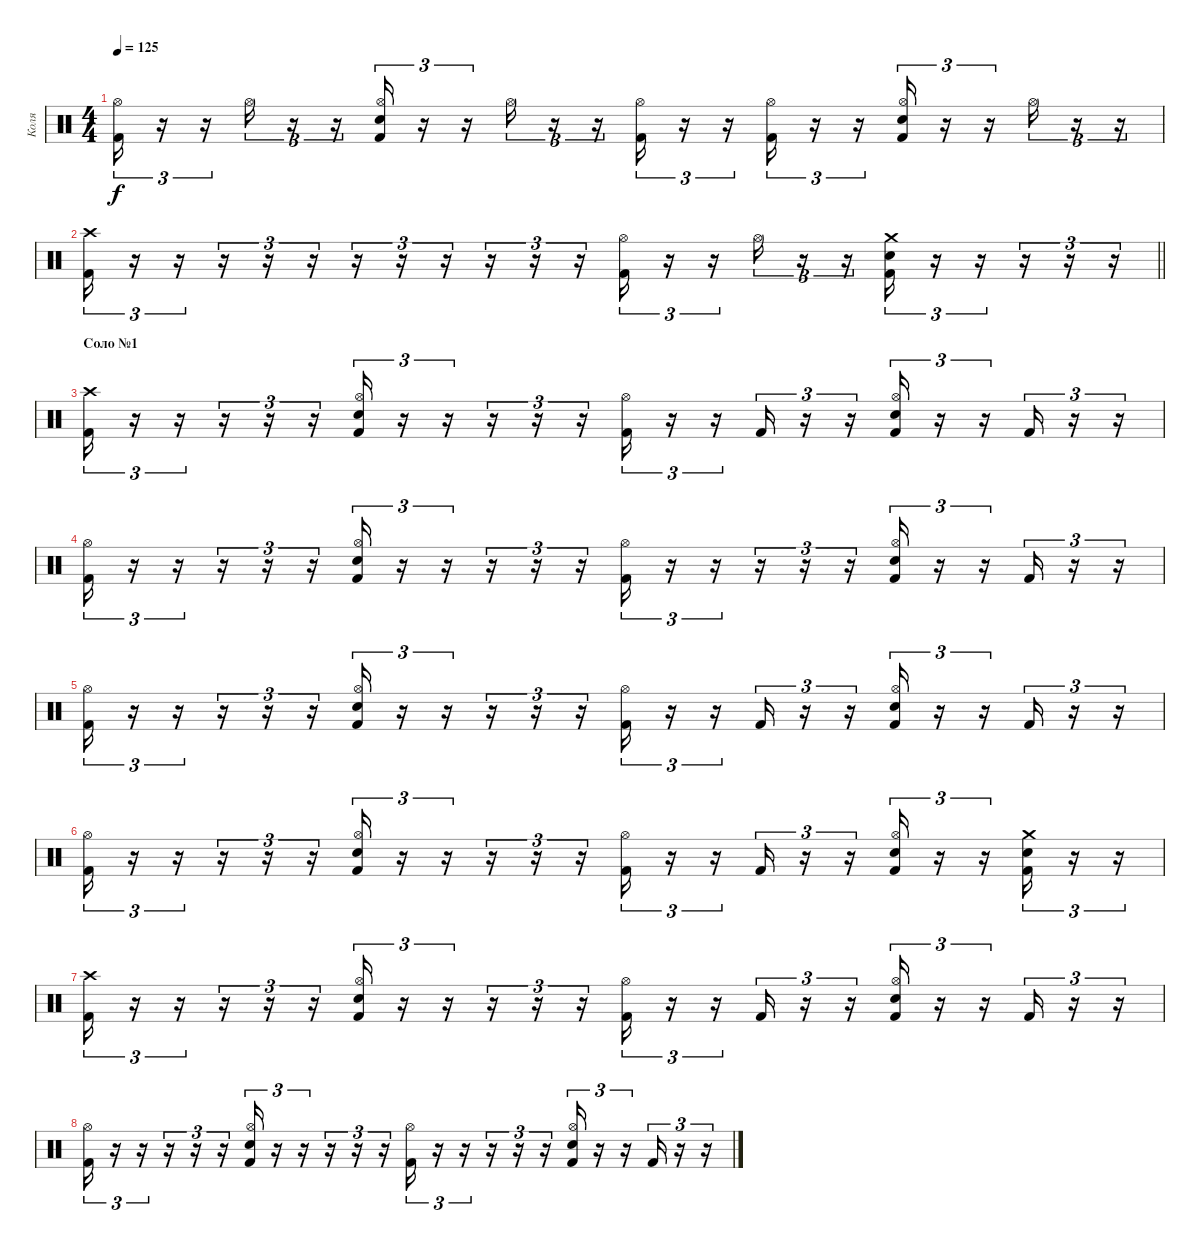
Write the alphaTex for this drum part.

\track ("Коля" "Коля") {instrument percussion}
\staff {score}
\articulation defaults
\ts (4 4)
\tempo 125
\clef neutral
\ks c
("Kick (hit) 2" "Hi-Hat (open)").16{tu (3 2) dy f} r.16{tu (3 2)} r.16{tu (3 2)} "Hi-Hat (open)".16{tu (3 2)} r.16{tu (3 2)} r.16{tu (3 2)} ("Kick (hit) 2" "Snare (hit) 2" "Hi-Hat (open)").16{tu (3 2)} r.16{tu (3 2)} r.16{tu (3 2)} "Hi-Hat (open)".16{tu (3 2)} r.16{tu (3 2)} r.16{tu (3 2)} ("Kick (hit) 2" "Hi-Hat (open)").16{tu (3 2)} r.16{tu (3 2)} r.16{tu (3 2)} ("Kick (hit) 2" "Hi-Hat (open)").16{tu (3 2)} r.16{tu (3 2)} r.16{tu (3 2)} ("Kick (hit) 2" "Snare (hit) 2" "Hi-Hat (open)").16{tu (3 2)} r.16{tu (3 2)} r.16{tu (3 2)} "Hi-Hat (open)".16{tu (3 2)} r.16{tu (3 2)} r.16{tu (3 2)} |
\barLineRight lightlight
("Kick (hit) 2" "Crash high (hit)").16{tu (3 2)} r.16{tu (3 2)} r.16{tu (3 2)} r.16{tu (3 2)} r.16{tu (3 2)} r.16{tu (3 2)} r.16{tu (3 2)} r.16{tu (3 2)} r.16{tu (3 2)} r.16{tu (3 2)} r.16{tu (3 2)} r.16{tu (3 2)} ("Kick (hit) 2" "Hi-Hat (open)").16{tu (3 2)} r.16{tu (3 2)} r.16{tu (3 2)} "Hi-Hat (open)".16{tu (3 2)} r.16{tu (3 2)} r.16{tu (3 2)} ("Kick (hit) 2" "Snare (hit) 2" "Crash medium (hit)").16{tu (3 2)} r.16{tu (3 2)} r.16{tu (3 2)} r.16{tu (3 2)} r.16{tu (3 2)} r.16{tu (3 2)} |
\section ("" "Соло №1")
("Kick (hit) 2" "Crash high (hit)").16{tu (3 2)} r.16{tu (3 2)} r.16{tu (3 2)} r.16{tu (3 2)} r.16{tu (3 2)} r.16{tu (3 2)} ("Kick (hit) 2" "Snare (hit) 2" "Hi-Hat (open)").16{tu (3 2)} r.16{tu (3 2)} r.16{tu (3 2)} r.16{tu (3 2)} r.16{tu (3 2)} r.16{tu (3 2)} ("Kick (hit) 2" "Hi-Hat (open)").16{tu (3 2)} r.16{tu (3 2)} r.16{tu (3 2)} "Kick (hit) 2".16{tu (3 2)} r.16{tu (3 2)} r.16{tu (3 2)} ("Kick (hit) 2" "Snare (hit) 2" "Hi-Hat (open)").16{tu (3 2)} r.16{tu (3 2)} r.16{tu (3 2)} "Kick (hit) 2".16{tu (3 2)} r.16{tu (3 2)} r.16{tu (3 2)} |
("Kick (hit) 2" "Hi-Hat (open)").16{tu (3 2)} r.16{tu (3 2)} r.16{tu (3 2)} r.16{tu (3 2)} r.16{tu (3 2)} r.16{tu (3 2)} ("Kick (hit) 2" "Snare (hit) 2" "Hi-Hat (open)").16{tu (3 2)} r.16{tu (3 2)} r.16{tu (3 2)} r.16{tu (3 2)} r.16{tu (3 2)} r.16{tu (3 2)} ("Kick (hit) 2" "Hi-Hat (open)").16{tu (3 2)} r.16{tu (3 2)} r.16{tu (3 2)} r.16{tu (3 2)} r.16{tu (3 2)} r.16{tu (3 2)} ("Kick (hit) 2" "Snare (hit) 2" "Hi-Hat (open)").16{tu (3 2)} r.16{tu (3 2)} r.16{tu (3 2)} "Kick (hit) 2".16{tu (3 2)} r.16{tu (3 2)} r.16{tu (3 2)} |
("Kick (hit) 2" "Hi-Hat (open)").16{tu (3 2)} r.16{tu (3 2)} r.16{tu (3 2)} r.16{tu (3 2)} r.16{tu (3 2)} r.16{tu (3 2)} ("Kick (hit) 2" "Snare (hit) 2" "Hi-Hat (open)").16{tu (3 2)} r.16{tu (3 2)} r.16{tu (3 2)} r.16{tu (3 2)} r.16{tu (3 2)} r.16{tu (3 2)} ("Kick (hit) 2" "Hi-Hat (open)").16{tu (3 2)} r.16{tu (3 2)} r.16{tu (3 2)} "Kick (hit) 2".16{tu (3 2)} r.16{tu (3 2)} r.16{tu (3 2)} ("Kick (hit) 2" "Snare (hit) 2" "Hi-Hat (open)").16{tu (3 2)} r.16{tu (3 2)} r.16{tu (3 2)} "Kick (hit) 2".16{tu (3 2)} r.16{tu (3 2)} r.16{tu (3 2)} |
("Kick (hit) 2" "Hi-Hat (open)").16{tu (3 2)} r.16{tu (3 2)} r.16{tu (3 2)} r.16{tu (3 2)} r.16{tu (3 2)} r.16{tu (3 2)} ("Kick (hit) 2" "Snare (hit) 2" "Hi-Hat (open)").16{tu (3 2)} r.16{tu (3 2)} r.16{tu (3 2)} r.16{tu (3 2)} r.16{tu (3 2)} r.16{tu (3 2)} ("Kick (hit) 2" "Hi-Hat (open)").16{tu (3 2)} r.16{tu (3 2)} r.16{tu (3 2)} "Kick (hit) 2".16{tu (3 2)} r.16{tu (3 2)} r.16{tu (3 2)} ("Kick (hit) 2" "Snare (hit) 2" "Hi-Hat (open)").16{tu (3 2)} r.16{tu (3 2)} r.16{tu (3 2)} ("Kick (hit) 2" "Snare (hit) 2" "Crash medium (hit)").16{tu (3 2)} r.16{tu (3 2)} r.16{tu (3 2)} |
("Kick (hit) 2" "Crash high (hit)").16{tu (3 2)} r.16{tu (3 2)} r.16{tu (3 2)} r.16{tu (3 2)} r.16{tu (3 2)} r.16{tu (3 2)} ("Kick (hit) 2" "Snare (hit) 2" "Hi-Hat (open)").16{tu (3 2)} r.16{tu (3 2)} r.16{tu (3 2)} r.16{tu (3 2)} r.16{tu (3 2)} r.16{tu (3 2)} ("Kick (hit) 2" "Hi-Hat (open)").16{tu (3 2)} r.16{tu (3 2)} r.16{tu (3 2)} "Kick (hit) 2".16{tu (3 2)} r.16{tu (3 2)} r.16{tu (3 2)} ("Kick (hit) 2" "Snare (hit) 2" "Hi-Hat (open)").16{tu (3 2)} r.16{tu (3 2)} r.16{tu (3 2)} "Kick (hit) 2".16{tu (3 2)} r.16{tu (3 2)} r.16{tu (3 2)} |
("Kick (hit) 2" "Hi-Hat (open)").16{tu (3 2)} r.16{tu (3 2)} r.16{tu (3 2)} r.16{tu (3 2)} r.16{tu (3 2)} r.16{tu (3 2)} ("Kick (hit) 2" "Snare (hit) 2" "Hi-Hat (open)").16{tu (3 2)} r.16{tu (3 2)} r.16{tu (3 2)} r.16{tu (3 2)} r.16{tu (3 2)} r.16{tu (3 2)} ("Kick (hit) 2" "Hi-Hat (open)").16{tu (3 2)} r.16{tu (3 2)} r.16{tu (3 2)} r.16{tu (3 2)} r.16{tu (3 2)} r.16{tu (3 2)} ("Kick (hit) 2" "Snare (hit) 2" "Hi-Hat (open)").16{tu (3 2)} r.16{tu (3 2)} r.16{tu (3 2)} "Kick (hit) 2".16{tu (3 2)} r.16{tu (3 2)} r.16{tu (3 2)}
